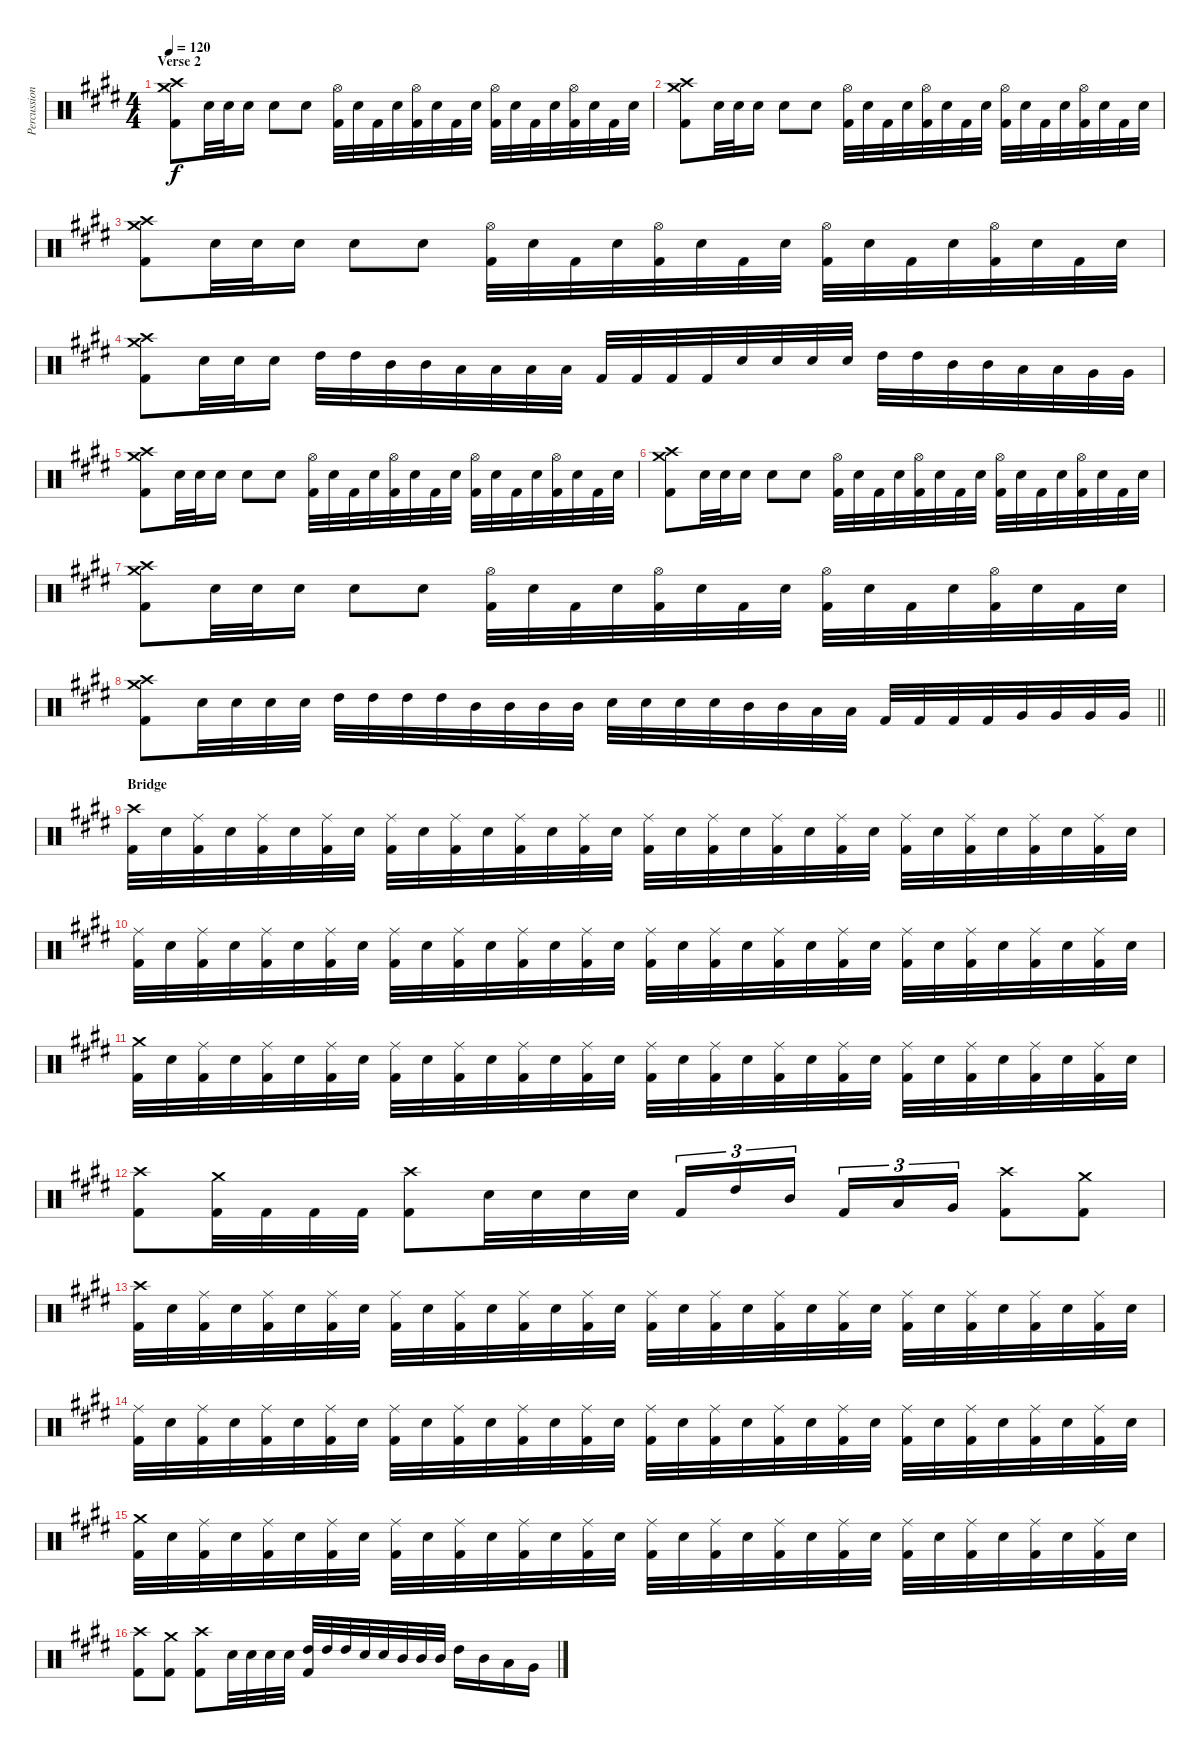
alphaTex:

\track ("Percussion" "Percussion") {instrument percussion}
\staff {score}
\articulation defaults
\ts (4 4)
\section ("" "Verse 2")
\tempo 120
\clef neutral
\ks c#minor
("Crash high (hit)" "Crash medium (hit)" "Kick (hit) 2").8{dy f} "Snare (hit) 2".32 "Snare (hit) 2".32 "Snare (hit) 2".16 "Snare (hit) 2".8 "Snare (hit) 2".8 ("Hi-Hat (open)" "Kick (hit) 2").32 "Snare (hit) 2".32 "Kick (hit) 2".32 "Snare (hit) 2".32 ("Hi-Hat (open)" "Kick (hit) 2").32 "Snare (hit) 2".32 "Kick (hit) 2".32 "Snare (hit) 2".32 ("Hi-Hat (open)" "Kick (hit) 2").32 "Snare (hit) 2".32 "Kick (hit) 2".32 "Snare (hit) 2".32 ("Hi-Hat (open)" "Kick (hit) 2").32 "Snare (hit) 2".32 "Kick (hit) 2".32 "Snare (hit) 2".32 |
("Crash high (hit)" "Crash medium (hit)" "Kick (hit) 2").8 "Snare (hit) 2".32 "Snare (hit) 2".32 "Snare (hit) 2".16 "Snare (hit) 2".8 "Snare (hit) 2".8 ("Hi-Hat (open)" "Kick (hit) 2").32 "Snare (hit) 2".32 "Kick (hit) 2".32 "Snare (hit) 2".32 ("Hi-Hat (open)" "Kick (hit) 2").32 "Snare (hit) 2".32 "Kick (hit) 2".32 "Snare (hit) 2".32 ("Hi-Hat (open)" "Kick (hit) 2").32 "Snare (hit) 2".32 "Kick (hit) 2".32 "Snare (hit) 2".32 ("Hi-Hat (open)" "Kick (hit) 2").32 "Snare (hit) 2".32 "Kick (hit) 2".32 "Snare (hit) 2".32 |
("Crash high (hit)" "Crash medium (hit)" "Kick (hit) 2").8 "Snare (hit) 2".32 "Snare (hit) 2".32 "Snare (hit) 2".16 "Snare (hit) 2".8 "Snare (hit) 2".8 ("Hi-Hat (open)" "Kick (hit) 2").32 "Snare (hit) 2".32 "Kick (hit) 2".32 "Snare (hit) 2".32 ("Hi-Hat (open)" "Kick (hit) 2").32 "Snare (hit) 2".32 "Kick (hit) 2".32 "Snare (hit) 2".32 ("Hi-Hat (open)" "Kick (hit) 2").32 "Snare (hit) 2".32 "Kick (hit) 2".32 "Snare (hit) 2".32 ("Hi-Hat (open)" "Kick (hit) 2").32 "Snare (hit) 2".32 "Kick (hit) 2".32 "Snare (hit) 2".32 |
("Crash high (hit)" "Crash medium (hit)" "Kick (hit) 2").8 "Snare (hit) 2".32 "Snare (hit) 2".32 "Snare (hit) 2".16 "High Tom (hit)".32 "High Tom (hit)".32 "Mid Tom (hit)".32 "Mid Tom (hit)".32 "Low Tom (hit)".32 "Low Tom (hit)".32 "Low Tom (hit)".32 "Low Tom (hit)".32 "Kick (hit) 2".32 "Kick (hit) 2".32 "Kick (hit) 2".32 "Kick (hit) 2".32 "Snare (hit) 2".32 "Snare (hit) 2".32 "Snare (hit) 2".32 "Snare (hit) 2".32 "High Tom (hit)".32 "High Tom (hit)".32 "Mid Tom (hit)".32 "Mid Tom (hit)".32 "Low Tom (hit)".32 "Low Tom (hit)".32 "Very Low Tom (hit)".32 "Very Low Tom (hit)".32 |
("Crash high (hit)" "Crash medium (hit)" "Kick (hit) 2").8 "Snare (hit) 2".32 "Snare (hit) 2".32 "Snare (hit) 2".16 "Snare (hit) 2".8 "Snare (hit) 2".8 ("Hi-Hat (open)" "Kick (hit) 2").32 "Snare (hit) 2".32 "Kick (hit) 2".32 "Snare (hit) 2".32 ("Hi-Hat (open)" "Kick (hit) 2").32 "Snare (hit) 2".32 "Kick (hit) 2".32 "Snare (hit) 2".32 ("Hi-Hat (open)" "Kick (hit) 2").32 "Snare (hit) 2".32 "Kick (hit) 2".32 "Snare (hit) 2".32 ("Hi-Hat (open)" "Kick (hit) 2").32 "Snare (hit) 2".32 "Kick (hit) 2".32 "Snare (hit) 2".32 |
("Crash high (hit)" "Crash medium (hit)" "Kick (hit) 2").8 "Snare (hit) 2".32 "Snare (hit) 2".32 "Snare (hit) 2".16 "Snare (hit) 2".8 "Snare (hit) 2".8 ("Hi-Hat (open)" "Kick (hit) 2").32 "Snare (hit) 2".32 "Kick (hit) 2".32 "Snare (hit) 2".32 ("Hi-Hat (open)" "Kick (hit) 2").32 "Snare (hit) 2".32 "Kick (hit) 2".32 "Snare (hit) 2".32 ("Hi-Hat (open)" "Kick (hit) 2").32 "Snare (hit) 2".32 "Kick (hit) 2".32 "Snare (hit) 2".32 ("Hi-Hat (open)" "Kick (hit) 2").32 "Snare (hit) 2".32 "Kick (hit) 2".32 "Snare (hit) 2".32 |
("Crash high (hit)" "Crash medium (hit)" "Kick (hit) 2").8 "Snare (hit) 2".32 "Snare (hit) 2".32 "Snare (hit) 2".16 "Snare (hit) 2".8 "Snare (hit) 2".8 ("Hi-Hat (open)" "Kick (hit) 2").32 "Snare (hit) 2".32 "Kick (hit) 2".32 "Snare (hit) 2".32 ("Hi-Hat (open)" "Kick (hit) 2").32 "Snare (hit) 2".32 "Kick (hit) 2".32 "Snare (hit) 2".32 ("Hi-Hat (open)" "Kick (hit) 2").32 "Snare (hit) 2".32 "Kick (hit) 2".32 "Snare (hit) 2".32 ("Hi-Hat (open)" "Kick (hit) 2").32 "Snare (hit) 2".32 "Kick (hit) 2".32 "Snare (hit) 2".32 |
\barLineRight lightlight
("Crash medium (hit)" "Crash high (hit)" "Kick (hit) 2").8 "Snare (hit) 2".32 "Snare (hit) 2".32 "Snare (hit) 2".32 "Snare (hit) 2".32 "High Tom (hit)".32 "High Tom (hit)".32 "High Tom (hit)".32 "High Tom (hit)".32 "Mid Tom (hit)".32 "Mid Tom (hit)".32 "Mid Tom (hit)".32 "Mid Tom (hit)".32 "Snare (hit) 2".32 "Snare (hit) 2".32 "Snare (hit) 2".32 "Snare (hit) 2".32 "Mid Tom (hit)".32 "Mid Tom (hit)".32 "Low Tom (hit)".32 "Low Tom (hit)".32 "Kick (hit) 2".32 "Kick (hit) 2".32 "Kick (hit) 2".32 "Kick (hit) 2".32 "Very Low Tom (hit)".32 "Very Low Tom (hit)".32 "Very Low Tom (hit)".32 "Very Low Tom (hit)".32 |
\section ("" "Bridge")
("Crash high (hit)" "Kick (hit) 2").32 "Snare (hit) 2".32 ("Ride (middle)" "Kick (hit) 2").32 "Snare (hit) 2".32 ("Ride (middle)" "Kick (hit) 2").32 "Snare (hit) 2".32 ("Ride (middle)" "Kick (hit) 2").32 "Snare (hit) 2".32 ("Ride (middle)" "Kick (hit) 2").32 "Snare (hit) 2".32 ("Ride (middle)" "Kick (hit) 2").32 "Snare (hit) 2".32 ("Ride (middle)" "Kick (hit) 2").32 "Snare (hit) 2".32 ("Ride (middle)" "Kick (hit) 2").32 "Snare (hit) 2".32 ("Ride (middle)" "Kick (hit) 2").32 "Snare (hit) 2".32 ("Ride (middle)" "Kick (hit) 2").32 "Snare (hit) 2".32 ("Ride (middle)" "Kick (hit) 2").32 "Snare (hit) 2".32 ("Ride (middle)" "Kick (hit) 2").32 "Snare (hit) 2".32 ("Ride (middle)" "Kick (hit) 2").32 "Snare (hit) 2".32 ("Ride (middle)" "Kick (hit) 2").32 "Snare (hit) 2".32 ("Ride (middle)" "Kick (hit) 2").32 "Snare (hit) 2".32 ("Ride (middle)" "Kick (hit) 2").32 "Snare (hit) 2".32 |
("Ride (middle)" "Kick (hit) 2").32 "Snare (hit) 2".32 ("Ride (middle)" "Kick (hit) 2").32 "Snare (hit) 2".32 ("Ride (middle)" "Kick (hit) 2").32 "Snare (hit) 2".32 ("Ride (middle)" "Kick (hit) 2").32 "Snare (hit) 2".32 ("Ride (middle)" "Kick (hit) 2").32 "Snare (hit) 2".32 ("Ride (middle)" "Kick (hit) 2").32 "Snare (hit) 2".32 ("Ride (middle)" "Kick (hit) 2").32 "Snare (hit) 2".32 ("Ride (middle)" "Kick (hit) 2").32 "Snare (hit) 2".32 ("Ride (middle)" "Kick (hit) 2").32 "Snare (hit) 2".32 ("Ride (middle)" "Kick (hit) 2").32 "Snare (hit) 2".32 ("Ride (middle)" "Kick (hit) 2").32 "Snare (hit) 2".32 ("Ride (middle)" "Kick (hit) 2").32 "Snare (hit) 2".32 ("Ride (middle)" "Kick (hit) 2").32 "Snare (hit) 2".32 ("Ride (middle)" "Kick (hit) 2").32 "Snare (hit) 2".32 ("Ride (middle)" "Kick (hit) 2").32 "Snare (hit) 2".32 ("Ride (middle)" "Kick (hit) 2").32 "Snare (hit) 2".32 |
("Crash medium (hit)" "Kick (hit) 2").32 "Snare (hit) 2".32 ("Ride (middle)" "Kick (hit) 2").32 "Snare (hit) 2".32 ("Ride (middle)" "Kick (hit) 2").32 "Snare (hit) 2".32 ("Ride (middle)" "Kick (hit) 2").32 "Snare (hit) 2".32 ("Ride (middle)" "Kick (hit) 2").32 "Snare (hit) 2".32 ("Ride (middle)" "Kick (hit) 2").32 "Snare (hit) 2".32 ("Ride (middle)" "Kick (hit) 2").32 "Snare (hit) 2".32 ("Ride (middle)" "Kick (hit) 2").32 "Snare (hit) 2".32 ("Ride (middle)" "Kick (hit) 2").32 "Snare (hit) 2".32 ("Ride (middle)" "Kick (hit) 2").32 "Snare (hit) 2".32 ("Ride (middle)" "Kick (hit) 2").32 "Snare (hit) 2".32 ("Ride (middle)" "Kick (hit) 2").32 "Snare (hit) 2".32 ("Ride (middle)" "Kick (hit) 2").32 "Snare (hit) 2".32 ("Ride (middle)" "Kick (hit) 2").32 "Snare (hit) 2".32 ("Ride (middle)" "Kick (hit) 2").32 "Snare (hit) 2".32 ("Ride (middle)" "Kick (hit) 2").32 "Snare (hit) 2".32 |
("Crash high (hit)" "Kick (hit) 2").8 ("Crash medium (hit)" "Kick (hit) 2").32 "Kick (hit) 2".32 "Kick (hit) 2".32 "Kick (hit) 2".32 ("Crash high (hit)" "Kick (hit) 2").8 "Snare (hit) 2".32 "Snare (hit) 2".32 "Snare (hit) 2".32 "Snare (hit) 2".32 "Kick (hit) 2".16{tu (3 2)} "High Tom (hit)".16{tu (3 2)} "Mid Tom (hit)".16{tu (3 2)} "Kick (hit) 2".16{tu (3 2)} "Low Tom (hit)".16{tu (3 2)} "Very Low Tom (hit)".16{tu (3 2)} ("Crash high (hit)" "Kick (hit) 2").8 ("Crash medium (hit)" "Kick (hit) 2").8 |
("Crash high (hit)" "Kick (hit) 2").32 "Snare (hit) 2".32 ("Ride (middle)" "Kick (hit) 2").32 "Snare (hit) 2".32 ("Ride (middle)" "Kick (hit) 2").32 "Snare (hit) 2".32 ("Ride (middle)" "Kick (hit) 2").32 "Snare (hit) 2".32 ("Ride (middle)" "Kick (hit) 2").32 "Snare (hit) 2".32 ("Ride (middle)" "Kick (hit) 2").32 "Snare (hit) 2".32 ("Ride (middle)" "Kick (hit) 2").32 "Snare (hit) 2".32 ("Ride (middle)" "Kick (hit) 2").32 "Snare (hit) 2".32 ("Ride (middle)" "Kick (hit) 2").32 "Snare (hit) 2".32 ("Ride (middle)" "Kick (hit) 2").32 "Snare (hit) 2".32 ("Ride (middle)" "Kick (hit) 2").32 "Snare (hit) 2".32 ("Ride (middle)" "Kick (hit) 2").32 "Snare (hit) 2".32 ("Ride (middle)" "Kick (hit) 2").32 "Snare (hit) 2".32 ("Ride (middle)" "Kick (hit) 2").32 "Snare (hit) 2".32 ("Ride (middle)" "Kick (hit) 2").32 "Snare (hit) 2".32 ("Ride (middle)" "Kick (hit) 2").32 "Snare (hit) 2".32 |
("Ride (middle)" "Kick (hit) 2").32 "Snare (hit) 2".32 ("Ride (middle)" "Kick (hit) 2").32 "Snare (hit) 2".32 ("Ride (middle)" "Kick (hit) 2").32 "Snare (hit) 2".32 ("Ride (middle)" "Kick (hit) 2").32 "Snare (hit) 2".32 ("Ride (middle)" "Kick (hit) 2").32 "Snare (hit) 2".32 ("Ride (middle)" "Kick (hit) 2").32 "Snare (hit) 2".32 ("Ride (middle)" "Kick (hit) 2").32 "Snare (hit) 2".32 ("Ride (middle)" "Kick (hit) 2").32 "Snare (hit) 2".32 ("Ride (middle)" "Kick (hit) 2").32 "Snare (hit) 2".32 ("Ride (middle)" "Kick (hit) 2").32 "Snare (hit) 2".32 ("Ride (middle)" "Kick (hit) 2").32 "Snare (hit) 2".32 ("Ride (middle)" "Kick (hit) 2").32 "Snare (hit) 2".32 ("Ride (middle)" "Kick (hit) 2").32 "Snare (hit) 2".32 ("Ride (middle)" "Kick (hit) 2").32 "Snare (hit) 2".32 ("Ride (middle)" "Kick (hit) 2").32 "Snare (hit) 2".32 ("Ride (middle)" "Kick (hit) 2").32 "Snare (hit) 2".32 |
("Crash medium (hit)" "Kick (hit) 2").32 "Snare (hit) 2".32 ("Ride (middle)" "Kick (hit) 2").32 "Snare (hit) 2".32 ("Ride (middle)" "Kick (hit) 2").32 "Snare (hit) 2".32 ("Ride (middle)" "Kick (hit) 2").32 "Snare (hit) 2".32 ("Ride (middle)" "Kick (hit) 2").32 "Snare (hit) 2".32 ("Ride (middle)" "Kick (hit) 2").32 "Snare (hit) 2".32 ("Ride (middle)" "Kick (hit) 2").32 "Snare (hit) 2".32 ("Ride (middle)" "Kick (hit) 2").32 "Snare (hit) 2".32 ("Ride (middle)" "Kick (hit) 2").32 "Snare (hit) 2".32 ("Ride (middle)" "Kick (hit) 2").32 "Snare (hit) 2".32 ("Ride (middle)" "Kick (hit) 2").32 "Snare (hit) 2".32 ("Ride (middle)" "Kick (hit) 2").32 "Snare (hit) 2".32 ("Ride (middle)" "Kick (hit) 2").32 "Snare (hit) 2".32 ("Ride (middle)" "Kick (hit) 2").32 "Snare (hit) 2".32 ("Ride (middle)" "Kick (hit) 2").32 "Snare (hit) 2".32 ("Ride (middle)" "Kick (hit) 2").32 "Snare (hit) 2".32 |
("Crash high (hit)" "Kick (hit) 2").8 ("Crash medium (hit)" "Kick (hit) 2").8 ("Crash high (hit)" "Kick (hit) 2").8 "Snare (hit) 2".32 "Snare (hit) 2".32 "Snare (hit) 2".32 "Snare (hit) 2".32 ("High Tom (hit)" "Kick (hit) 2").32 "High Tom (hit)".32 "High Tom (hit)".32 "Snare (hit) 2".32 "Snare (hit) 2".32 "Mid Tom (hit)".32 "Mid Tom (hit)".32 "Mid Tom (hit)".32 "High Tom (hit)".16 "Mid Tom (hit)".16 "Low Tom (hit)".16 "Very Low Tom (hit)".16
